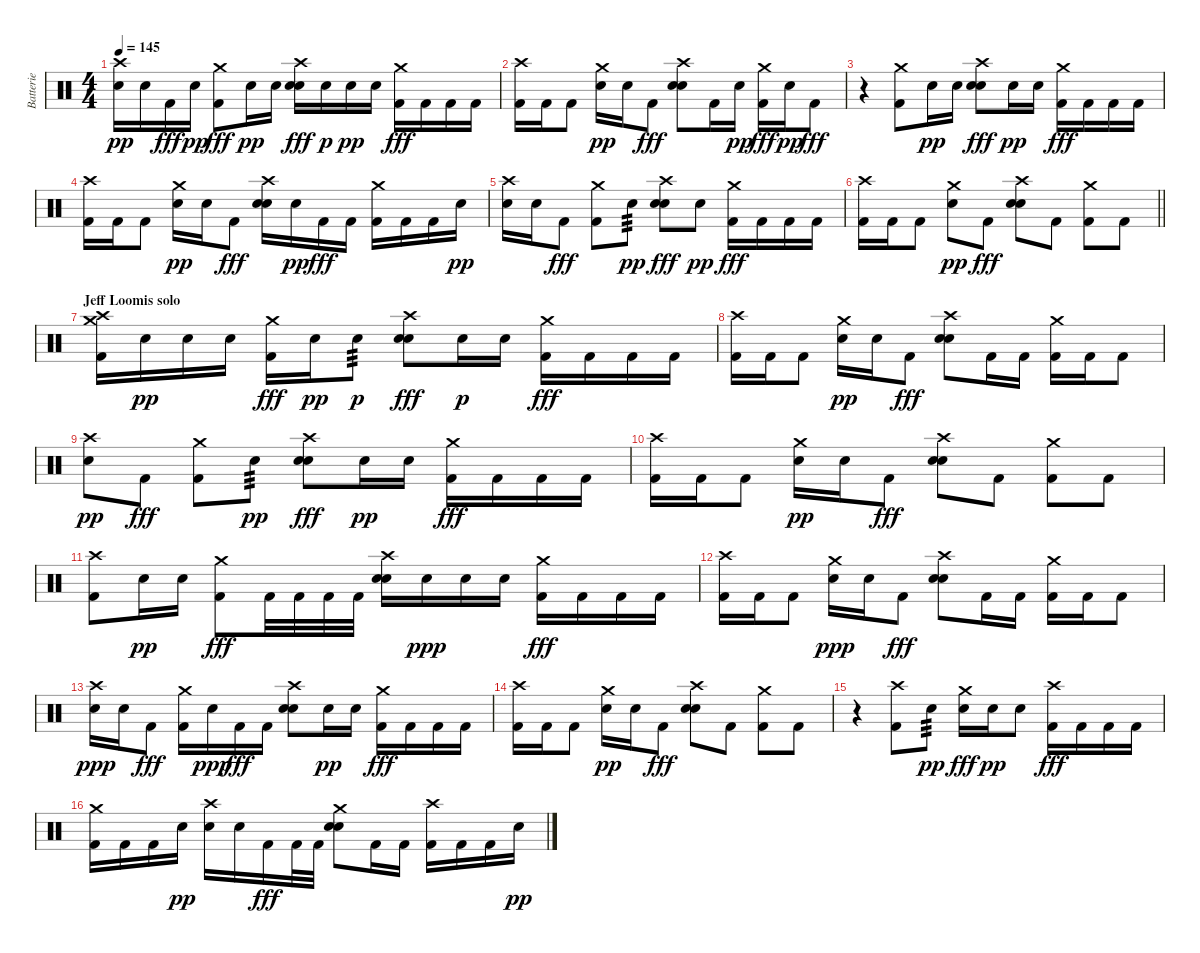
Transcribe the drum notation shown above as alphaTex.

\track ("Batterie" "Batterie") {instrument percussion}
\staff {score}
\articulation defaults
\ts (4 4)
\tempo 145
\clef neutral
\ks c
("Crash high (hit)" "Electric Snare (hit)").16{dy pp} "Electric Snare (hit)".16 "Kick (hit) 2".16{dy fff} "Electric Snare (hit)".16{dy pp} ("Crash medium (hit)" "Kick (hit) 2").8{dy fff} "Electric Snare (hit)".16{dy pp} "Electric Snare (hit)".16 ("Crash high (hit)" "Electric Snare (hit)" "Electric Snare (hit)").16{dy fff} "Electric Snare (hit)".16{dy p} "Electric Snare (hit)".16{dy pp} "Electric Snare (hit)".16 ("Crash medium (hit)" "Kick (hit) 2").16{dy fff} "Kick (hit) 2".16 "Kick (hit) 2".16 "Kick (hit) 2".16 |
("Crash high (hit)" "Kick (hit) 2").16 "Kick (hit) 2".16 "Kick (hit) 2".8 ("Crash medium (hit)" "Electric Snare (hit)").16{dy pp} "Electric Snare (hit)".16 "Kick (hit) 2".8{dy fff} ("Crash high (hit)" "Electric Snare (hit)" "Electric Snare (hit)").8 "Kick (hit) 2".16 "Electric Snare (hit)".16{dy pp} ("Crash medium (hit)" "Kick (hit) 2").16{dy fff} "Electric Snare (hit)".16{dy pp} "Kick (hit) 2".8{dy fff} |
r.4 ("Crash medium (hit)" "Kick (hit) 2").8 "Electric Snare (hit)".16{dy pp} "Electric Snare (hit)".16 ("Crash high (hit)" "Electric Snare (hit)" "Electric Snare (hit)").8{dy fff} "Electric Snare (hit)".16{dy pp} "Electric Snare (hit)".16 ("Crash medium (hit)" "Kick (hit) 2").16{dy fff} "Kick (hit) 2".16 "Kick (hit) 2".16 "Kick (hit) 2".16 |
("Crash high (hit)" "Kick (hit) 2").16 "Kick (hit) 2".16 "Kick (hit) 2".8 ("Crash medium (hit)" "Electric Snare (hit)").16{dy pp} "Electric Snare (hit)".16 "Kick (hit) 2".8{dy fff} ("Crash high (hit)" "Electric Snare (hit)" "Electric Snare (hit)").16 "Electric Snare (hit)".16{dy pp} "Kick (hit) 2".16{dy fff} "Kick (hit) 2".16 ("Crash medium (hit)" "Kick (hit) 2").16 "Kick (hit) 2".16 "Kick (hit) 2".16 "Electric Snare (hit)".16{dy pp} |
("Crash high (hit)" "Electric Snare (hit)").16 "Electric Snare (hit)".16 "Kick (hit) 2".8{dy fff} ("Crash medium (hit)" "Kick (hit) 2").8 "Electric Snare (hit)".8{tp 3 dy pp} ("Crash high (hit)" "Electric Snare (hit)" "Electric Snare (hit)").8{dy fff} "Electric Snare (hit)".8{dy pp} ("Crash medium (hit)" "Kick (hit) 2").16{dy fff} "Kick (hit) 2".16 "Kick (hit) 2".16 "Kick (hit) 2".16 |
\barLineRight lightlight
("Crash high (hit)" "Kick (hit) 2").16 "Kick (hit) 2".16 "Kick (hit) 2".8 ("Crash medium (hit)" "Electric Snare (hit)").8{dy pp} "Kick (hit) 2".8{dy fff} ("Crash high (hit)" "Electric Snare (hit)" "Electric Snare (hit)").8 "Kick (hit) 2".8 ("Crash medium (hit)" "Kick (hit) 2").8 "Kick (hit) 2".8 |
\section ("" "Jeff Loomis solo")
("Crash high (hit)" "Crash medium (hit)" "Kick (hit) 2").16 "Electric Snare (hit)".16{dy pp} "Electric Snare (hit)".16 "Electric Snare (hit)".16 ("Crash medium (hit)" "Kick (hit) 2").16{dy fff} "Electric Snare (hit)".16{dy pp} "Electric Snare (hit)".8{tp 3 dy p} ("Crash high (hit)" "Electric Snare (hit)" "Electric Snare (hit)").8{dy fff} "Electric Snare (hit)".16{dy p} "Electric Snare (hit)".16 ("Crash medium (hit)" "Kick (hit) 2").16{dy fff} "Kick (hit) 2".16 "Kick (hit) 2".16 "Kick (hit) 2".16 |
("Crash high (hit)" "Kick (hit) 2").16 "Kick (hit) 2".16 "Kick (hit) 2".8 ("Crash medium (hit)" "Electric Snare (hit)").16{dy pp} "Electric Snare (hit)".16 "Kick (hit) 2".8{dy fff} ("Crash high (hit)" "Electric Snare (hit)" "Electric Snare (hit)").8 "Kick (hit) 2".16 "Kick (hit) 2".16 ("Crash medium (hit)" "Kick (hit) 2").16 "Kick (hit) 2".16 "Kick (hit) 2".8 |
("Crash high (hit)" "Electric Snare (hit)").8{dy pp} "Kick (hit) 2".8{dy fff} ("Crash medium (hit)" "Kick (hit) 2").8 "Electric Snare (hit)".8{tp 3 dy pp} ("Crash high (hit)" "Electric Snare (hit)" "Electric Snare (hit)").8{dy fff} "Electric Snare (hit)".16{dy pp} "Electric Snare (hit)".16 ("Crash medium (hit)" "Kick (hit) 2").16{dy fff} "Kick (hit) 2".16 "Kick (hit) 2".16 "Kick (hit) 2".16 |
("Crash high (hit)" "Kick (hit) 2").16 "Kick (hit) 2".16 "Kick (hit) 2".8 ("Crash medium (hit)" "Electric Snare (hit)").16{dy pp} "Electric Snare (hit)".16 "Kick (hit) 2".8{dy fff} ("Crash high (hit)" "Electric Snare (hit)" "Electric Snare (hit)").8 "Kick (hit) 2".8 ("Crash medium (hit)" "Kick (hit) 2").8 "Kick (hit) 2".8 |
("Crash high (hit)" "Kick (hit) 2").8 "Electric Snare (hit)".16{dy pp} "Electric Snare (hit)".16 ("Crash medium (hit)" "Kick (hit) 2").8{dy fff} "Kick (hit) 2".32 "Kick (hit) 2".32 "Kick (hit) 2".32 "Kick (hit) 2".32 ("Crash high (hit)" "Electric Snare (hit)" "Electric Snare (hit)").16 "Electric Snare (hit)".16{dy ppp} "Electric Snare (hit)".16 "Electric Snare (hit)".16 ("Crash medium (hit)" "Kick (hit) 2").16{dy fff} "Kick (hit) 2".16 "Kick (hit) 2".16 "Kick (hit) 2".16 |
("Crash high (hit)" "Kick (hit) 2").16 "Kick (hit) 2".16 "Kick (hit) 2".8 ("Crash medium (hit)" "Electric Snare (hit)").16{dy ppp} "Electric Snare (hit)".16 "Kick (hit) 2".8{dy fff} ("Crash high (hit)" "Electric Snare (hit)" "Electric Snare (hit)").8 "Kick (hit) 2".16 "Kick (hit) 2".16 ("Crash medium (hit)" "Kick (hit) 2").16 "Kick (hit) 2".16 "Kick (hit) 2".8 |
("Crash high (hit)" "Electric Snare (hit)").16{dy ppp} "Electric Snare (hit)".16 "Kick (hit) 2".8{dy fff} ("Crash medium (hit)" "Kick (hit) 2").16 "Electric Snare (hit)".16{dy ppp} "Kick (hit) 2".16{dy fff} "Kick (hit) 2".16 ("Crash high (hit)" "Electric Snare (hit)" "Electric Snare (hit)").8 "Electric Snare (hit)".16{dy pp} "Electric Snare (hit)".16 ("Crash medium (hit)" "Kick (hit) 2").16{dy fff} "Kick (hit) 2".16 "Kick (hit) 2".16 "Kick (hit) 2".16 |
("Crash high (hit)" "Kick (hit) 2").16 "Kick (hit) 2".16 "Kick (hit) 2".8 ("Crash medium (hit)" "Electric Snare (hit)").16{dy pp} "Electric Snare (hit)".16 "Kick (hit) 2".8{dy fff} ("Crash high (hit)" "Electric Snare (hit)" "Electric Snare (hit)").8 "Kick (hit) 2".8 ("Crash medium (hit)" "Kick (hit) 2").8 "Kick (hit) 2".8 |
r.4 ("Crash high (hit)" "Kick (hit) 2").8 "Electric Snare (hit)".8{tp 3 dy pp} ("Crash medium (hit)" "Electric Snare (hit)").16{dy fff} "Electric Snare (hit)".16{dy pp} "Electric Snare (hit)".8 ("Crash high (hit)" "Kick (hit) 2").16{dy fff} "Kick (hit) 2".16 "Kick (hit) 2".16 "Kick (hit) 2".16 |
("Crash medium (hit)" "Kick (hit) 2").16 "Kick (hit) 2".16 "Kick (hit) 2".16 "Electric Snare (hit)".16{dy pp} ("Crash high (hit)" "Electric Snare (hit)").16 "Electric Snare (hit)".16 "Kick (hit) 2".16{dy fff} "Kick (hit) 2".32 "Kick (hit) 2".32 ("Crash medium (hit)" "Electric Snare (hit)" "Electric Snare (hit)").8 "Kick (hit) 2".16 "Kick (hit) 2".16 ("Crash high (hit)" "Kick (hit) 2").16 "Kick (hit) 2".16 "Kick (hit) 2".16 "Electric Snare (hit)".16{dy pp}
